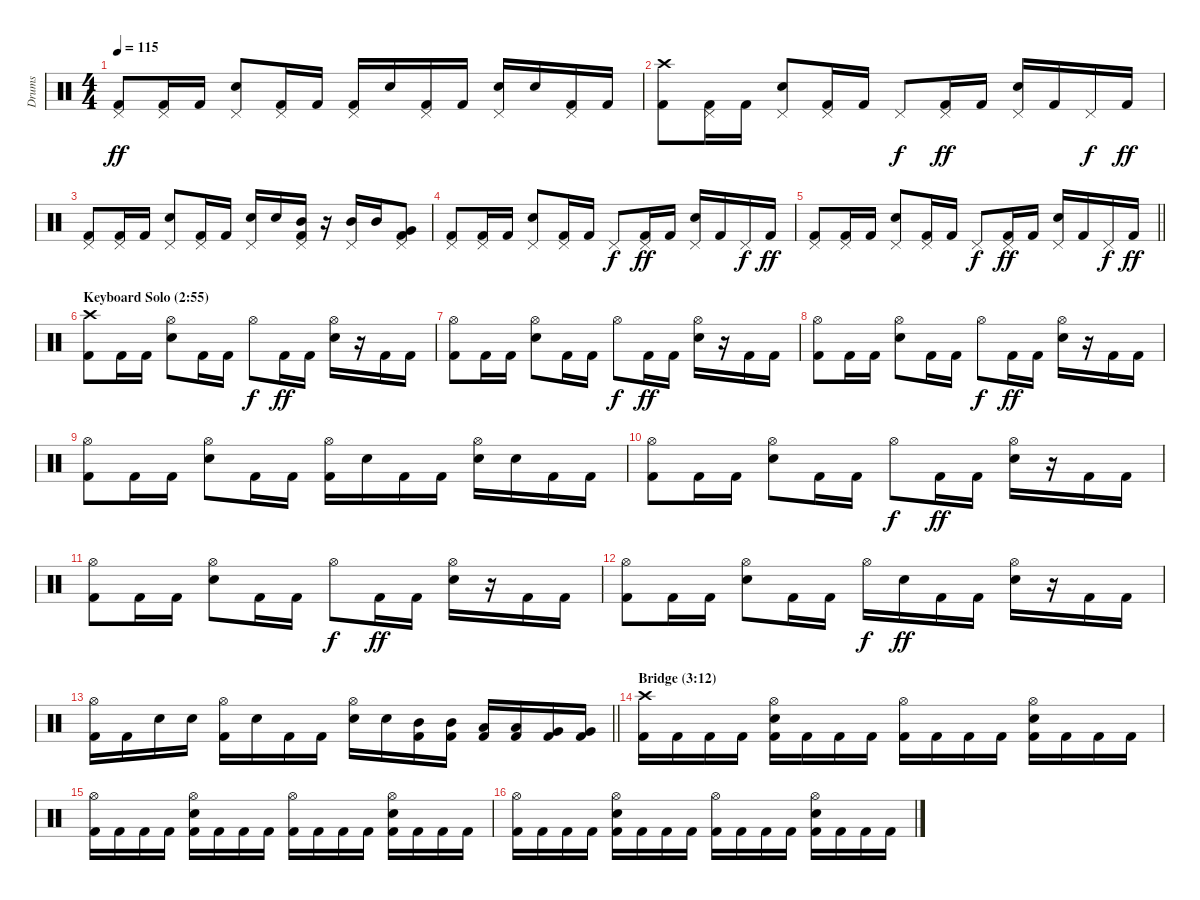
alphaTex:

\track ("Drums" "Drums") {instrument percussion}
\staff {score}
\articulation defaults
\ts (4 4)
\tempo 115
\clef neutral
\ks c
("Pedal Hi-Hat (hit)" "Kick (hit) 2").8{dy ff} ("Pedal Hi-Hat (hit)" "Kick (hit) 2").16 "Kick (hit) 2".16 ("Pedal Hi-Hat (hit)" "Snare (hit) 2").8 ("Pedal Hi-Hat (hit)" "Kick (hit) 2").16 "Kick (hit) 2".16 ("Pedal Hi-Hat (hit)" "Kick (hit) 2").16 "Snare (hit) 2".16 ("Pedal Hi-Hat (hit)" "Kick (hit) 2").16 "Kick (hit) 2".16 ("Pedal Hi-Hat (hit)" "Snare (hit) 2").16 "Snare (hit) 2".16 ("Pedal Hi-Hat (hit)" "Kick (hit) 2").16 "Kick (hit) 2".16 |
("Crash high (hit)" "Kick (hit) 2").8 ("Pedal Hi-Hat (hit)" "Kick (hit) 2").16 "Kick (hit) 2".16 ("Pedal Hi-Hat (hit)" "Snare (hit) 2").8 ("Pedal Hi-Hat (hit)" "Kick (hit) 2").16 "Kick (hit) 2".16 "Pedal Hi-Hat (hit)".8{dy f} ("Pedal Hi-Hat (hit)" "Kick (hit) 2").16{dy ff} "Kick (hit) 2".16 ("Pedal Hi-Hat (hit)" "Snare (hit) 2").16 "Kick (hit) 2".16 "Pedal Hi-Hat (hit)".16{dy f} "Kick (hit) 2".16{dy ff} |
("Pedal Hi-Hat (hit)" "Kick (hit) 2").8 ("Pedal Hi-Hat (hit)" "Kick (hit) 2").16 "Kick (hit) 2".16 ("Pedal Hi-Hat (hit)" "Snare (hit) 2").8 ("Pedal Hi-Hat (hit)" "Kick (hit) 2").16 "Kick (hit) 2".16 ("Pedal Hi-Hat (hit)" "Snare (hit) 2").16 "Snare (hit) 2".16 ("Pedal Hi-Hat (hit)" "Mid Tom (hit)" "Kick (hit) 2").16 r.16 ("Pedal Hi-Hat (hit)" "Mid Tom (hit)").16 "Mid Tom (hit)".16 ("Pedal Hi-Hat (hit)" "Very Low Tom (hit)" "Kick (hit) 2").8 |
("Pedal Hi-Hat (hit)" "Kick (hit) 2").8 ("Pedal Hi-Hat (hit)" "Kick (hit) 2").16 "Kick (hit) 2".16 ("Pedal Hi-Hat (hit)" "Snare (hit) 2").8 ("Pedal Hi-Hat (hit)" "Kick (hit) 2").16 "Kick (hit) 2".16 "Pedal Hi-Hat (hit)".8{dy f} ("Pedal Hi-Hat (hit)" "Kick (hit) 2").16{dy ff} "Kick (hit) 2".16 ("Pedal Hi-Hat (hit)" "Snare (hit) 2").16 "Kick (hit) 2".16 "Pedal Hi-Hat (hit)".16{dy f} "Kick (hit) 2".16{dy ff} |
\barLineRight lightlight
("Pedal Hi-Hat (hit)" "Kick (hit) 2").8 ("Pedal Hi-Hat (hit)" "Kick (hit) 2").16 "Kick (hit) 2".16 ("Pedal Hi-Hat (hit)" "Snare (hit) 2").8 ("Pedal Hi-Hat (hit)" "Kick (hit) 2").16 "Kick (hit) 2".16 "Pedal Hi-Hat (hit)".8{dy f} ("Pedal Hi-Hat (hit)" "Kick (hit) 2").16{dy ff} "Kick (hit) 2".16 ("Pedal Hi-Hat (hit)" "Snare (hit) 2").16 "Kick (hit) 2".16 "Pedal Hi-Hat (hit)".16{dy f} "Kick (hit) 2".16{dy ff} |
\section ("" "Keyboard Solo (2:55)")
("Crash high (hit)" "Kick (hit) 2").8 "Kick (hit) 2".16 "Kick (hit) 2".16 ("Hi-Hat (open)" "Snare (hit) 2").8 "Kick (hit) 2".16 "Kick (hit) 2".16 "Hi-Hat (open)".8{dy f} "Kick (hit) 2".16{dy ff} "Kick (hit) 2".16 ("Hi-Hat (open)" "Snare (hit) 2").16 r.16 "Kick (hit) 2".16 "Kick (hit) 2".16 |
("Hi-Hat (open)" "Kick (hit) 2").8 "Kick (hit) 2".16 "Kick (hit) 2".16 ("Hi-Hat (open)" "Snare (hit) 2").8 "Kick (hit) 2".16 "Kick (hit) 2".16 "Hi-Hat (open)".8{dy f} "Kick (hit) 2".16{dy ff} "Kick (hit) 2".16 ("Hi-Hat (open)" "Snare (hit) 2").16 r.16 "Kick (hit) 2".16 "Kick (hit) 2".16 |
("Hi-Hat (open)" "Kick (hit) 2").8 "Kick (hit) 2".16 "Kick (hit) 2".16 ("Hi-Hat (open)" "Snare (hit) 2").8 "Kick (hit) 2".16 "Kick (hit) 2".16 "Hi-Hat (open)".8{dy f} "Kick (hit) 2".16{dy ff} "Kick (hit) 2".16 ("Hi-Hat (open)" "Snare (hit) 2").16 r.16 "Kick (hit) 2".16 "Kick (hit) 2".16 |
("Hi-Hat (open)" "Kick (hit) 2").8 "Kick (hit) 2".16 "Kick (hit) 2".16 ("Hi-Hat (open)" "Snare (hit) 2").8 "Kick (hit) 2".16 "Kick (hit) 2".16 ("Hi-Hat (open)" "Kick (hit) 2").16 "Snare (hit) 2".16 "Kick (hit) 2".16 "Kick (hit) 2".16 ("Hi-Hat (open)" "Snare (hit) 2").16 "Snare (hit) 2".16 "Kick (hit) 2".16 "Kick (hit) 2".16 |
("Hi-Hat (open)" "Kick (hit) 2").8 "Kick (hit) 2".16 "Kick (hit) 2".16 ("Hi-Hat (open)" "Snare (hit) 2").8 "Kick (hit) 2".16 "Kick (hit) 2".16 "Hi-Hat (open)".8{dy f} "Kick (hit) 2".16{dy ff} "Kick (hit) 2".16 ("Hi-Hat (open)" "Snare (hit) 2").16 r.16 "Kick (hit) 2".16 "Kick (hit) 2".16 |
("Hi-Hat (open)" "Kick (hit) 2").8 "Kick (hit) 2".16 "Kick (hit) 2".16 ("Hi-Hat (open)" "Snare (hit) 2").8 "Kick (hit) 2".16 "Kick (hit) 2".16 "Hi-Hat (open)".8{dy f} "Kick (hit) 2".16{dy ff} "Kick (hit) 2".16 ("Hi-Hat (open)" "Snare (hit) 2").16 r.16 "Kick (hit) 2".16 "Kick (hit) 2".16 |
("Hi-Hat (open)" "Kick (hit) 2").8 "Kick (hit) 2".16 "Kick (hit) 2".16 ("Hi-Hat (open)" "Snare (hit) 2").8 "Kick (hit) 2".16 "Kick (hit) 2".16 "Hi-Hat (open)".16{dy f} "Snare (hit) 2".16{dy ff} "Kick (hit) 2".16 "Kick (hit) 2".16 ("Hi-Hat (open)" "Snare (hit) 2").16 r.16 "Kick (hit) 2".16 "Kick (hit) 2".16 |
\barLineRight lightlight
("Hi-Hat (open)" "Kick (hit) 2").16 "Kick (hit) 2".16 "Snare (hit) 2".16 "Snare (hit) 2".16 ("Hi-Hat (open)" "Kick (hit) 2").16 "Snare (hit) 2".16 "Kick (hit) 2".16 "Kick (hit) 2".16 ("Hi-Hat (open)" "Snare (hit) 2").16 "Snare (hit) 2".16 ("Mid Tom (hit)" "Kick (hit) 2").16 ("Mid Tom (hit)" "Kick (hit) 2").16 ("Low Tom (hit)" "Kick (hit) 2").16 ("Low Tom (hit)" "Kick (hit) 2").16 ("Very Low Tom (hit)" "Kick (hit) 2").16 ("Very Low Tom (hit)" "Kick (hit) 2").16 |
\section ("" "Bridge (3:12)")
("Crash high (hit)" "Kick (hit) 2").16 "Kick (hit) 2".16 "Kick (hit) 2".16 "Kick (hit) 2".16 ("Hi-Hat (open)" "Snare (hit) 2" "Kick (hit) 2").16 "Kick (hit) 2".16 "Kick (hit) 2".16 "Kick (hit) 2".16 ("Hi-Hat (open)" "Kick (hit) 2").16 "Kick (hit) 2".16 "Kick (hit) 2".16 "Kick (hit) 2".16 ("Hi-Hat (open)" "Snare (hit) 2" "Kick (hit) 2").16 "Kick (hit) 2".16 "Kick (hit) 2".16 "Kick (hit) 2".16 |
("Hi-Hat (open)" "Kick (hit) 2").16 "Kick (hit) 2".16 "Kick (hit) 2".16 "Kick (hit) 2".16 ("Hi-Hat (open)" "Snare (hit) 2" "Kick (hit) 2").16 "Kick (hit) 2".16 "Kick (hit) 2".16 "Kick (hit) 2".16 ("Hi-Hat (open)" "Kick (hit) 2").16 "Kick (hit) 2".16 "Kick (hit) 2".16 "Kick (hit) 2".16 ("Hi-Hat (open)" "Snare (hit) 2" "Kick (hit) 2").16 "Kick (hit) 2".16 "Kick (hit) 2".16 "Kick (hit) 2".16 |
("Hi-Hat (open)" "Kick (hit) 2").16 "Kick (hit) 2".16 "Kick (hit) 2".16 "Kick (hit) 2".16 ("Hi-Hat (open)" "Snare (hit) 2" "Kick (hit) 2").16 "Kick (hit) 2".16 "Kick (hit) 2".16 "Kick (hit) 2".16 ("Hi-Hat (open)" "Kick (hit) 2").16 "Kick (hit) 2".16 "Kick (hit) 2".16 "Kick (hit) 2".16 ("Hi-Hat (open)" "Snare (hit) 2" "Kick (hit) 2").16 "Kick (hit) 2".16 "Kick (hit) 2".16 "Kick (hit) 2".16
